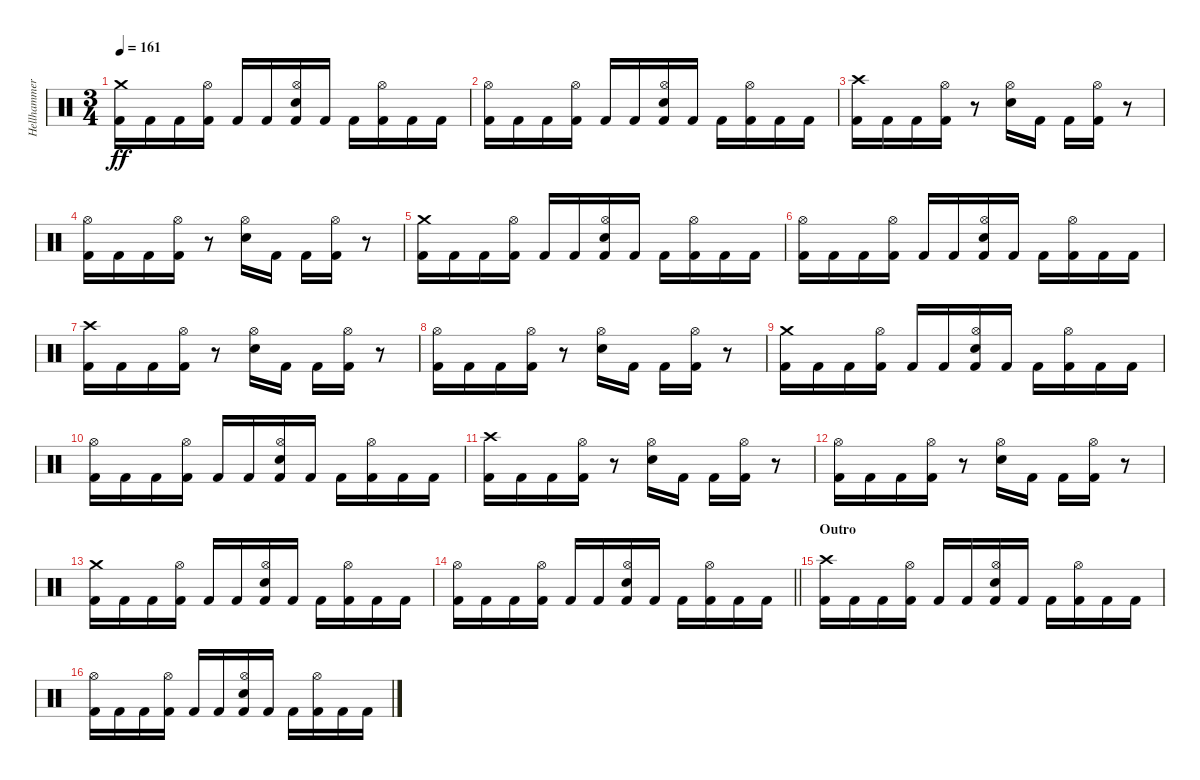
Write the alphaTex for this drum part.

\track ("Hellhammer" "Hellhammer") {instrument percussion}
\staff {score}
\articulation defaults
\ts (3 4)
\tempo 161
\clef neutral
\ks c
("Crash medium (hit)" "Kick (hit) 2").16{dy ff} "Kick (hit) 2".16 "Kick (hit) 2".16 ("Hi-Hat (open)" "Kick (hit) 2").16 "Kick (hit) 2".16 "Kick (hit) 2".16 ("Hi-Hat (open)" "Snare (hit) 2" "Kick (hit) 2").16 "Kick (hit) 2".16 "Kick (hit) 2".16 ("Hi-Hat (open)" "Kick (hit) 2").16 "Kick (hit) 2".16 "Kick (hit) 2".16 |
("Hi-Hat (open)" "Kick (hit) 2").16 "Kick (hit) 2".16 "Kick (hit) 2".16 ("Hi-Hat (open)" "Kick (hit) 2").16 "Kick (hit) 2".16 "Kick (hit) 2".16 ("Hi-Hat (open)" "Snare (hit) 2" "Kick (hit) 2").16 "Kick (hit) 2".16 "Kick (hit) 2".16 ("Hi-Hat (open)" "Kick (hit) 2").16 "Kick (hit) 2".16 "Kick (hit) 2".16 |
("Crash high (hit)" "Kick (hit) 2").16 "Kick (hit) 2".16 "Kick (hit) 2".16 ("Hi-Hat (open)" "Kick (hit) 2").16 r.8 ("Hi-Hat (open)" "Snare (hit) 2").16 "Kick (hit) 2".16 "Kick (hit) 2".16 ("Hi-Hat (open)" "Kick (hit) 2").16 r.8 |
("Hi-Hat (open)" "Kick (hit) 2").16 "Kick (hit) 2".16 "Kick (hit) 2".16 ("Hi-Hat (open)" "Kick (hit) 2").16 r.8 ("Hi-Hat (open)" "Snare (hit) 2").16 "Kick (hit) 2".16 "Kick (hit) 2".16 ("Hi-Hat (open)" "Kick (hit) 2").16 r.8 |
("Crash medium (hit)" "Kick (hit) 2").16 "Kick (hit) 2".16 "Kick (hit) 2".16 ("Hi-Hat (open)" "Kick (hit) 2").16 "Kick (hit) 2".16 "Kick (hit) 2".16 ("Hi-Hat (open)" "Snare (hit) 2" "Kick (hit) 2").16 "Kick (hit) 2".16 "Kick (hit) 2".16 ("Hi-Hat (open)" "Kick (hit) 2").16 "Kick (hit) 2".16 "Kick (hit) 2".16 |
("Hi-Hat (open)" "Kick (hit) 2").16 "Kick (hit) 2".16 "Kick (hit) 2".16 ("Hi-Hat (open)" "Kick (hit) 2").16 "Kick (hit) 2".16 "Kick (hit) 2".16 ("Hi-Hat (open)" "Snare (hit) 2" "Kick (hit) 2").16 "Kick (hit) 2".16 "Kick (hit) 2".16 ("Hi-Hat (open)" "Kick (hit) 2").16 "Kick (hit) 2".16 "Kick (hit) 2".16 |
("Crash high (hit)" "Kick (hit) 2").16 "Kick (hit) 2".16 "Kick (hit) 2".16 ("Hi-Hat (open)" "Kick (hit) 2").16 r.8 ("Hi-Hat (open)" "Snare (hit) 2").16 "Kick (hit) 2".16 "Kick (hit) 2".16 ("Hi-Hat (open)" "Kick (hit) 2").16 r.8 |
("Hi-Hat (open)" "Kick (hit) 2").16 "Kick (hit) 2".16 "Kick (hit) 2".16 ("Hi-Hat (open)" "Kick (hit) 2").16 r.8 ("Hi-Hat (open)" "Snare (hit) 2").16 "Kick (hit) 2".16 "Kick (hit) 2".16 ("Hi-Hat (open)" "Kick (hit) 2").16 r.8 |
("Crash medium (hit)" "Kick (hit) 2").16 "Kick (hit) 2".16 "Kick (hit) 2".16 ("Hi-Hat (open)" "Kick (hit) 2").16 "Kick (hit) 2".16 "Kick (hit) 2".16 ("Hi-Hat (open)" "Snare (hit) 2" "Kick (hit) 2").16 "Kick (hit) 2".16 "Kick (hit) 2".16 ("Hi-Hat (open)" "Kick (hit) 2").16 "Kick (hit) 2".16 "Kick (hit) 2".16 |
("Hi-Hat (open)" "Kick (hit) 2").16 "Kick (hit) 2".16 "Kick (hit) 2".16 ("Hi-Hat (open)" "Kick (hit) 2").16 "Kick (hit) 2".16 "Kick (hit) 2".16 ("Hi-Hat (open)" "Snare (hit) 2" "Kick (hit) 2").16 "Kick (hit) 2".16 "Kick (hit) 2".16 ("Hi-Hat (open)" "Kick (hit) 2").16 "Kick (hit) 2".16 "Kick (hit) 2".16 |
("Crash high (hit)" "Kick (hit) 2").16 "Kick (hit) 2".16 "Kick (hit) 2".16 ("Hi-Hat (open)" "Kick (hit) 2").16 r.8 ("Hi-Hat (open)" "Snare (hit) 2").16 "Kick (hit) 2".16 "Kick (hit) 2".16 ("Hi-Hat (open)" "Kick (hit) 2").16 r.8 |
("Hi-Hat (open)" "Kick (hit) 2").16 "Kick (hit) 2".16 "Kick (hit) 2".16 ("Hi-Hat (open)" "Kick (hit) 2").16 r.8 ("Hi-Hat (open)" "Snare (hit) 2").16 "Kick (hit) 2".16 "Kick (hit) 2".16 ("Hi-Hat (open)" "Kick (hit) 2").16 r.8 |
("Crash medium (hit)" "Kick (hit) 2").16 "Kick (hit) 2".16 "Kick (hit) 2".16 ("Hi-Hat (open)" "Kick (hit) 2").16 "Kick (hit) 2".16 "Kick (hit) 2".16 ("Hi-Hat (open)" "Snare (hit) 2" "Kick (hit) 2").16 "Kick (hit) 2".16 "Kick (hit) 2".16 ("Hi-Hat (open)" "Kick (hit) 2").16 "Kick (hit) 2".16 "Kick (hit) 2".16 |
\barLineRight lightlight
("Hi-Hat (open)" "Kick (hit) 2").16 "Kick (hit) 2".16 "Kick (hit) 2".16 ("Hi-Hat (open)" "Kick (hit) 2").16 "Kick (hit) 2".16 "Kick (hit) 2".16 ("Hi-Hat (open)" "Snare (hit) 2" "Kick (hit) 2").16 "Kick (hit) 2".16 "Kick (hit) 2".16 ("Hi-Hat (open)" "Kick (hit) 2").16 "Kick (hit) 2".16 "Kick (hit) 2".16 |
\section ("" "Outro")
("Crash high (hit)" "Kick (hit) 2").16 "Kick (hit) 2".16 "Kick (hit) 2".16 ("Hi-Hat (open)" "Kick (hit) 2").16 "Kick (hit) 2".16 "Kick (hit) 2".16 ("Hi-Hat (open)" "Snare (hit) 2" "Kick (hit) 2").16 "Kick (hit) 2".16 "Kick (hit) 2".16 ("Hi-Hat (open)" "Kick (hit) 2").16 "Kick (hit) 2".16 "Kick (hit) 2".16 |
("Hi-Hat (open)" "Kick (hit) 2").16 "Kick (hit) 2".16 "Kick (hit) 2".16 ("Hi-Hat (open)" "Kick (hit) 2").16 "Kick (hit) 2".16 "Kick (hit) 2".16 ("Hi-Hat (open)" "Snare (hit) 2" "Kick (hit) 2").16 "Kick (hit) 2".16 "Kick (hit) 2".16 ("Hi-Hat (open)" "Kick (hit) 2").16 "Kick (hit) 2".16 "Kick (hit) 2".16
